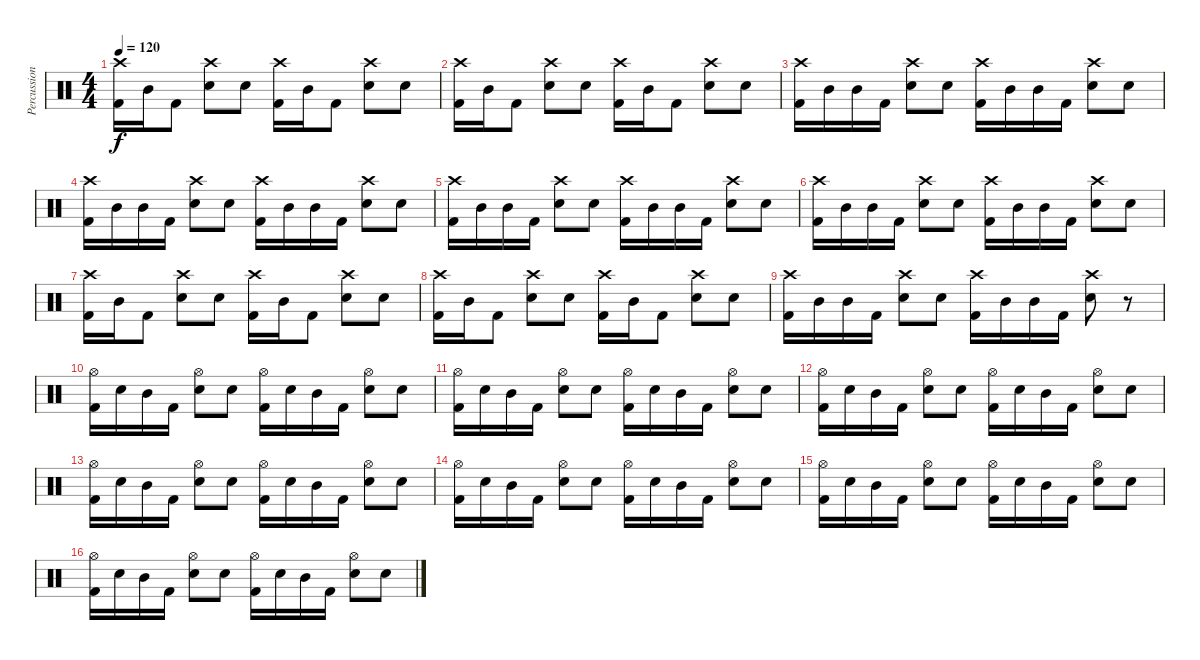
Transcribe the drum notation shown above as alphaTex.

\track ("Percussions" "Percussion") {instrument percussion}
\staff {score}
\articulation defaults
\ts (4 4)
\tempo 120
\clef neutral
\ks c
("Kick (hit) 2" "Crash high (hit)").16{dy f} "Mid Tom (hit)".16 "Kick (hit) 2".8 ("Electric Snare (hit)" "Crash high (hit)").8 "Electric Snare (hit)".8 ("Kick (hit) 2" "Crash high (hit)").16 "Mid Tom (hit)".16 "Kick (hit) 2".8 ("Electric Snare (hit)" "Crash high (hit)").8 "Electric Snare (hit)".8 |
("Kick (hit) 2" "Crash high (hit)").16 "Mid Tom (hit)".16 "Kick (hit) 2".8 ("Electric Snare (hit)" "Crash high (hit)").8 "Electric Snare (hit)".8 ("Kick (hit) 2" "Crash high (hit)").16 "Mid Tom (hit)".16 "Kick (hit) 2".8 ("Electric Snare (hit)" "Crash high (hit)").8 "Electric Snare (hit)".8 |
("Kick (hit) 2" "Crash high (hit)").16 "Mid Tom (hit)".16 "Mid Tom (hit)".16 "Kick (hit) 2".16 ("Electric Snare (hit)" "Crash high (hit)").8 "Electric Snare (hit)".8 ("Kick (hit) 2" "Crash high (hit)").16 "Mid Tom (hit)".16 "Mid Tom (hit)".16 "Kick (hit) 2".16 ("Electric Snare (hit)" "Crash high (hit)").8 "Electric Snare (hit)".8 |
("Kick (hit) 2" "Crash high (hit)").16 "Mid Tom (hit)".16 "Mid Tom (hit)".16 "Kick (hit) 2".16 ("Electric Snare (hit)" "Crash high (hit)").8 "Electric Snare (hit)".8 ("Kick (hit) 2" "Crash high (hit)").16 "Mid Tom (hit)".16 "Mid Tom (hit)".16 "Kick (hit) 2".16 ("Electric Snare (hit)" "Crash high (hit)").8 "Electric Snare (hit)".8 |
("Kick (hit) 2" "Crash high (hit)").16 "Mid Tom (hit)".16 "Mid Tom (hit)".16 "Kick (hit) 2".16 ("Electric Snare (hit)" "Crash high (hit)").8 "Electric Snare (hit)".8 ("Kick (hit) 2" "Crash high (hit)").16 "Mid Tom (hit)".16 "Mid Tom (hit)".16 "Kick (hit) 2".16 ("Electric Snare (hit)" "Crash high (hit)").8 "Electric Snare (hit)".8 |
("Kick (hit) 2" "Crash high (hit)").16 "Mid Tom (hit)".16 "Mid Tom (hit)".16 "Kick (hit) 2".16 ("Electric Snare (hit)" "Crash high (hit)").8 "Electric Snare (hit)".8 ("Kick (hit) 2" "Crash high (hit)").16 "Mid Tom (hit)".16 "Mid Tom (hit)".16 "Kick (hit) 2".16 ("Electric Snare (hit)" "Crash high (hit)").8 "Electric Snare (hit)".8 |
("Kick (hit) 2" "Crash high (hit)").16 "Mid Tom (hit)".16 "Kick (hit) 2".8 ("Electric Snare (hit)" "Crash high (hit)").8 "Electric Snare (hit)".8 ("Kick (hit) 2" "Crash high (hit)").16 "Mid Tom (hit)".16 "Kick (hit) 2".8 ("Electric Snare (hit)" "Crash high (hit)").8 "Electric Snare (hit)".8 |
("Kick (hit) 2" "Crash high (hit)").16 "Mid Tom (hit)".16 "Kick (hit) 2".8 ("Electric Snare (hit)" "Crash high (hit)").8 "Electric Snare (hit)".8 ("Kick (hit) 2" "Crash high (hit)").16 "Mid Tom (hit)".16 "Kick (hit) 2".8 ("Electric Snare (hit)" "Crash high (hit)").8 "Electric Snare (hit)".8 |
("Kick (hit) 2" "Crash high (hit)").16 "Mid Tom (hit)".16 "Mid Tom (hit)".16 "Kick (hit) 2".16 ("Electric Snare (hit)" "Crash high (hit)").8 "Electric Snare (hit)".8 ("Kick (hit) 2" "Crash high (hit)").16 "Mid Tom (hit)".16 "Mid Tom (hit)".16 "Kick (hit) 2".16 ("Electric Snare (hit)" "Crash high (hit)").8 r.8 |
("Kick (hit) 2" "Hi-Hat (open)").16 "Electric Snare (hit)".16 "Mid Tom (hit)".16 "Kick (hit) 2".16 ("Electric Snare (hit)" "Hi-Hat (open)").8 "Electric Snare (hit)".8 ("Kick (hit) 2" "Hi-Hat (open)").16 "Electric Snare (hit)".16 "Mid Tom (hit)".16 "Kick (hit) 2".16 ("Electric Snare (hit)" "Hi-Hat (open)").8 "Electric Snare (hit)".8 |
("Kick (hit) 2" "Hi-Hat (open)").16 "Electric Snare (hit)".16 "Mid Tom (hit)".16 "Kick (hit) 2".16 ("Electric Snare (hit)" "Hi-Hat (open)").8 "Electric Snare (hit)".8 ("Kick (hit) 2" "Hi-Hat (open)").16 "Electric Snare (hit)".16 "Mid Tom (hit)".16 "Kick (hit) 2".16 ("Electric Snare (hit)" "Hi-Hat (open)").8 "Electric Snare (hit)".8 |
("Kick (hit) 2" "Hi-Hat (open)").16 "Electric Snare (hit)".16 "Mid Tom (hit)".16 "Kick (hit) 2".16 ("Electric Snare (hit)" "Hi-Hat (open)").8 "Electric Snare (hit)".8 ("Kick (hit) 2" "Hi-Hat (open)").16 "Electric Snare (hit)".16 "Mid Tom (hit)".16 "Kick (hit) 2".16 ("Electric Snare (hit)" "Hi-Hat (open)").8 "Electric Snare (hit)".8 |
("Kick (hit) 2" "Hi-Hat (open)").16 "Electric Snare (hit)".16 "Mid Tom (hit)".16 "Kick (hit) 2".16 ("Electric Snare (hit)" "Hi-Hat (open)").8 "Electric Snare (hit)".8 ("Kick (hit) 2" "Hi-Hat (open)").16 "Electric Snare (hit)".16 "Mid Tom (hit)".16 "Kick (hit) 2".16 ("Electric Snare (hit)" "Hi-Hat (open)").8 "Electric Snare (hit)".8 |
("Kick (hit) 2" "Hi-Hat (open)").16 "Electric Snare (hit)".16 "Mid Tom (hit)".16 "Kick (hit) 2".16 ("Electric Snare (hit)" "Hi-Hat (open)").8 "Electric Snare (hit)".8 ("Kick (hit) 2" "Hi-Hat (open)").16 "Electric Snare (hit)".16 "Mid Tom (hit)".16 "Kick (hit) 2".16 ("Electric Snare (hit)" "Hi-Hat (open)").8 "Electric Snare (hit)".8 |
("Kick (hit) 2" "Hi-Hat (open)").16 "Electric Snare (hit)".16 "Mid Tom (hit)".16 "Kick (hit) 2".16 ("Electric Snare (hit)" "Hi-Hat (open)").8 "Electric Snare (hit)".8 ("Kick (hit) 2" "Hi-Hat (open)").16 "Electric Snare (hit)".16 "Mid Tom (hit)".16 "Kick (hit) 2".16 ("Electric Snare (hit)" "Hi-Hat (open)").8 "Electric Snare (hit)".8 |
("Kick (hit) 2" "Hi-Hat (open)").16 "Electric Snare (hit)".16 "Mid Tom (hit)".16 "Kick (hit) 2".16 ("Electric Snare (hit)" "Hi-Hat (open)").8 "Electric Snare (hit)".8 ("Kick (hit) 2" "Hi-Hat (open)").16 "Electric Snare (hit)".16 "Mid Tom (hit)".16 "Kick (hit) 2".16 ("Electric Snare (hit)" "Hi-Hat (open)").8 "Electric Snare (hit)".8
